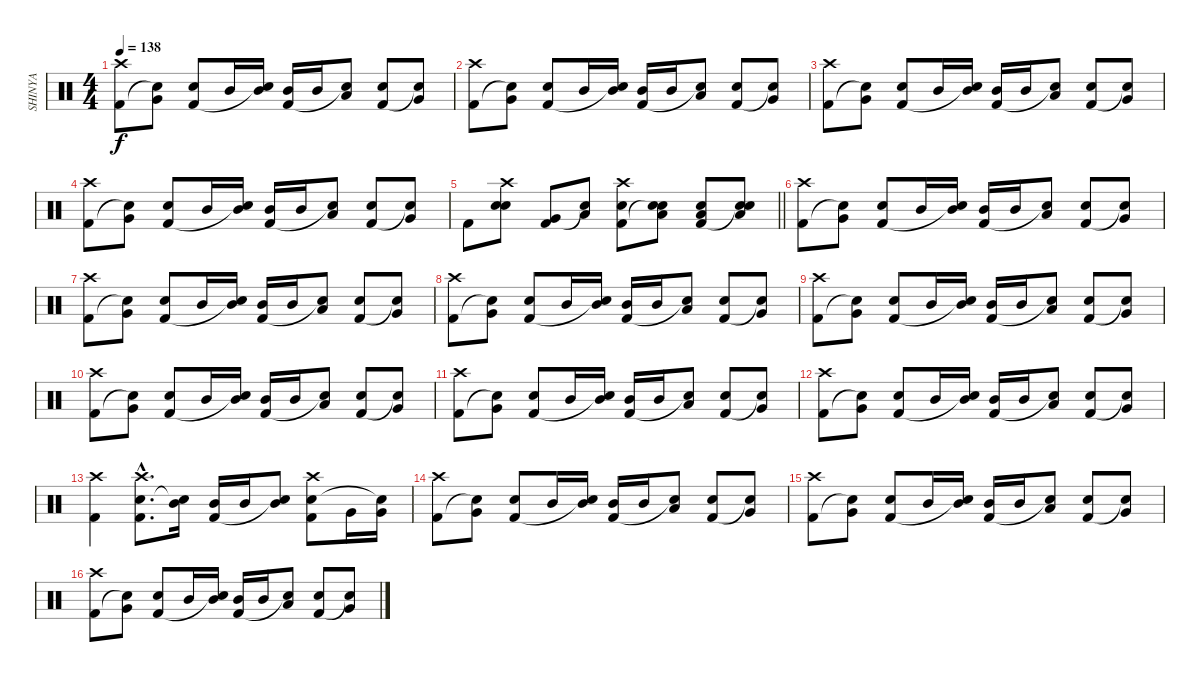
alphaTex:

\track ("SHINYA" "SHINYA") {instrument percussion}
\staff {score}
\articulation defaults
\ts (4 4)
\tempo 138
\clef neutral
\ks c
("Crash high (hit)" "Kick (hit) 2").8{dy f} ("Very Low Tom (hit)" "Snare (hit)"{t}).8 ("Electric Snare (hit)" "Kick (hit) 2").8 "Mid Tom (hit)".16 ("Mid Tom (hit)" "Snare (hit)"{t}).16 ("Mid Tom (hit)" "Kick (hit) 2").16 "Mid Tom (hit)".16 ("Low Tom (hit)" "Snare (hit)"{t}).8 ("Electric Snare (hit)" "Kick (hit) 2").8 ("Very Low Tom (hit)" "Snare (hit)"{t}).8 |
("Crash high (hit)" "Kick (hit) 2").8 ("Very Low Tom (hit)" "Snare (hit)"{t}).8 ("Electric Snare (hit)" "Kick (hit) 2").8 "Mid Tom (hit)".16 ("Mid Tom (hit)" "Snare (hit)"{t}).16 ("Mid Tom (hit)" "Kick (hit) 2").16 "Mid Tom (hit)".16 ("Low Tom (hit)" "Snare (hit)"{t}).8 ("Electric Snare (hit)" "Kick (hit) 2").8 ("Very Low Tom (hit)" "Snare (hit)"{t}).8 |
("Crash high (hit)" "Kick (hit) 2").8 ("Very Low Tom (hit)" "Snare (hit)"{t}).8 ("Electric Snare (hit)" "Kick (hit) 2").8 "Mid Tom (hit)".16 ("Mid Tom (hit)" "Snare (hit)"{t}).16 ("Mid Tom (hit)" "Kick (hit) 2").16 "Mid Tom (hit)".16 ("Low Tom (hit)" "Snare (hit)"{t}).8 ("Electric Snare (hit)" "Kick (hit) 2").8 ("Very Low Tom (hit)" "Snare (hit)"{t}).8 |
("Crash high (hit)" "Kick (hit) 2").8 ("Very Low Tom (hit)" "Snare (hit)"{t}).8 ("Electric Snare (hit)" "Kick (hit) 2").8 "Mid Tom (hit)".16 ("Mid Tom (hit)" "Snare (hit)"{t}).16 ("Mid Tom (hit)" "Kick (hit) 2").16 "Mid Tom (hit)".16 ("Low Tom (hit)" "Snare (hit)"{t}).8 ("Electric Snare (hit)" "Kick (hit) 2").8 ("Very Low Tom (hit)" "Snare (hit)"{t}).8 |
\barLineRight lightlight "Kick (hit) 2".8
("Crash high (hit)" "Electric Snare (hit)" "Snare (hit)").8 ("Very Low Tom (hit)" "Kick (hit) 2").8 ("Low Floor Tom (hit)" "Snare (hit)"{t}).8 ("Crash high (hit)" "Electric Snare (hit)" "Kick (hit) 2").8 ("Low Floor Tom (hit)" "Electric Snare (hit)" "Snare (hit)"{t}).8 ("Low Floor Tom (hit)" "Electric Snare (hit)" "Kick (hit) 2").8 ("Low Floor Tom (hit)" "Electric Snare (hit)" "Snare (hit)"{t}).8 |
("Crash high (hit)" "Kick (hit) 2").8 ("Very Low Tom (hit)" "Snare (hit)"{t}).8 ("Electric Snare (hit)" "Kick (hit) 2").8 "Mid Tom (hit)".16 ("Mid Tom (hit)" "Snare (hit)"{t}).16 ("Mid Tom (hit)" "Kick (hit) 2").16 "Mid Tom (hit)".16 ("Low Tom (hit)" "Snare (hit)"{t}).8 ("Electric Snare (hit)" "Kick (hit) 2").8 ("Very Low Tom (hit)" "Snare (hit)"{t}).8 |
("Crash high (hit)" "Kick (hit) 2").8 ("Very Low Tom (hit)" "Snare (hit)"{t}).8 ("Electric Snare (hit)" "Kick (hit) 2").8 "Mid Tom (hit)".16 ("Mid Tom (hit)" "Snare (hit)"{t}).16 ("Mid Tom (hit)" "Kick (hit) 2").16 "Mid Tom (hit)".16 ("Low Tom (hit)" "Snare (hit)"{t}).8 ("Electric Snare (hit)" "Kick (hit) 2").8 ("Very Low Tom (hit)" "Snare (hit)"{t}).8 |
("Crash high (hit)" "Kick (hit) 2").8 ("Very Low Tom (hit)" "Snare (hit)"{t}).8 ("Electric Snare (hit)" "Kick (hit) 2").8 "Mid Tom (hit)".16 ("Mid Tom (hit)" "Snare (hit)"{t}).16 ("Mid Tom (hit)" "Kick (hit) 2").16 "Mid Tom (hit)".16 ("Low Tom (hit)" "Snare (hit)"{t}).8 ("Electric Snare (hit)" "Kick (hit) 2").8 ("Very Low Tom (hit)" "Snare (hit)"{t}).8 |
("Crash high (hit)" "Kick (hit) 2").8 ("Very Low Tom (hit)" "Snare (hit)"{t}).8 ("Electric Snare (hit)" "Kick (hit) 2").8 "Mid Tom (hit)".16 ("Mid Tom (hit)" "Snare (hit)"{t}).16 ("Mid Tom (hit)" "Kick (hit) 2").16 "Mid Tom (hit)".16 ("Low Tom (hit)" "Snare (hit)"{t}).8 ("Electric Snare (hit)" "Kick (hit) 2").8 ("Very Low Tom (hit)" "Snare (hit)"{t}).8 |
("Crash high (hit)" "Kick (hit) 2").8 ("Very Low Tom (hit)" "Snare (hit)"{t}).8 ("Electric Snare (hit)" "Kick (hit) 2").8 "Mid Tom (hit)".16 ("Mid Tom (hit)" "Snare (hit)"{t}).16 ("Mid Tom (hit)" "Kick (hit) 2").16 "Mid Tom (hit)".16 ("Low Tom (hit)" "Snare (hit)"{t}).8 ("Electric Snare (hit)" "Kick (hit) 2").8 ("Very Low Tom (hit)" "Snare (hit)"{t}).8 |
("Crash high (hit)" "Kick (hit) 2").8 ("Very Low Tom (hit)" "Snare (hit)"{t}).8 ("Electric Snare (hit)" "Kick (hit) 2").8 "Mid Tom (hit)".16 ("Mid Tom (hit)" "Snare (hit)"{t}).16 ("Mid Tom (hit)" "Kick (hit) 2").16 "Mid Tom (hit)".16 ("Low Tom (hit)" "Snare (hit)"{t}).8 ("Electric Snare (hit)" "Kick (hit) 2").8 ("Very Low Tom (hit)" "Snare (hit)"{t}).8 |
("Crash high (hit)" "Kick (hit) 2").8 ("Very Low Tom (hit)" "Snare (hit)"{t}).8 ("Electric Snare (hit)" "Kick (hit) 2").8 "Mid Tom (hit)".16 ("Mid Tom (hit)" "Snare (hit)"{t}).16 ("Mid Tom (hit)" "Kick (hit) 2").16 "Mid Tom (hit)".16 ("Low Tom (hit)" "Snare (hit)"{t}).8 ("Electric Snare (hit)" "Kick (hit) 2").8 ("Very Low Tom (hit)" "Snare (hit)"{t}).8 |
("Crash high (hit)" "Kick (hit) 2").4 ("Crash high (hit)"{hac} "Electric Snare (hit)"{hac} "Kick (hit) 2"{hac}).8{d} ("Mid Tom (hit)" "Snare (hit)"{t}).16 ("Mid Tom (hit)" "Kick (hit) 2").16 "Mid Tom (hit)".16 ("Mid Tom (hit)" "Snare (hit)"{t}).8 ("Crash high (hit)" "Electric Snare (hit)" "Kick (hit) 2").8 "Very Low Tom (hit)".16 ("Very Low Tom (hit)" "Snare (hit)"{t}).16 |
("Crash high (hit)" "Kick (hit) 2").8 ("Very Low Tom (hit)" "Snare (hit)"{t}).8 ("Electric Snare (hit)" "Kick (hit) 2").8 "Mid Tom (hit)".16 ("Mid Tom (hit)" "Snare (hit)"{t}).16 ("Mid Tom (hit)" "Kick (hit) 2").16 "Mid Tom (hit)".16 ("Low Tom (hit)" "Snare (hit)"{t}).8 ("Electric Snare (hit)" "Kick (hit) 2").8 ("Very Low Tom (hit)" "Snare (hit)"{t}).8 |
("Crash high (hit)" "Kick (hit) 2").8 ("Very Low Tom (hit)" "Snare (hit)"{t}).8 ("Electric Snare (hit)" "Kick (hit) 2").8 "Mid Tom (hit)".16 ("Mid Tom (hit)" "Snare (hit)"{t}).16 ("Mid Tom (hit)" "Kick (hit) 2").16 "Mid Tom (hit)".16 ("Low Tom (hit)" "Snare (hit)"{t}).8 ("Electric Snare (hit)" "Kick (hit) 2").8 ("Very Low Tom (hit)" "Snare (hit)"{t}).8 |
("Crash high (hit)" "Kick (hit) 2").8 ("Very Low Tom (hit)" "Snare (hit)"{t}).8 ("Electric Snare (hit)" "Kick (hit) 2").8 "Mid Tom (hit)".16 ("Mid Tom (hit)" "Snare (hit)"{t}).16 ("Mid Tom (hit)" "Kick (hit) 2").16 "Mid Tom (hit)".16 ("Low Tom (hit)" "Snare (hit)"{t}).8 ("Electric Snare (hit)" "Kick (hit) 2").8 ("Very Low Tom (hit)" "Snare (hit)"{t}).8
